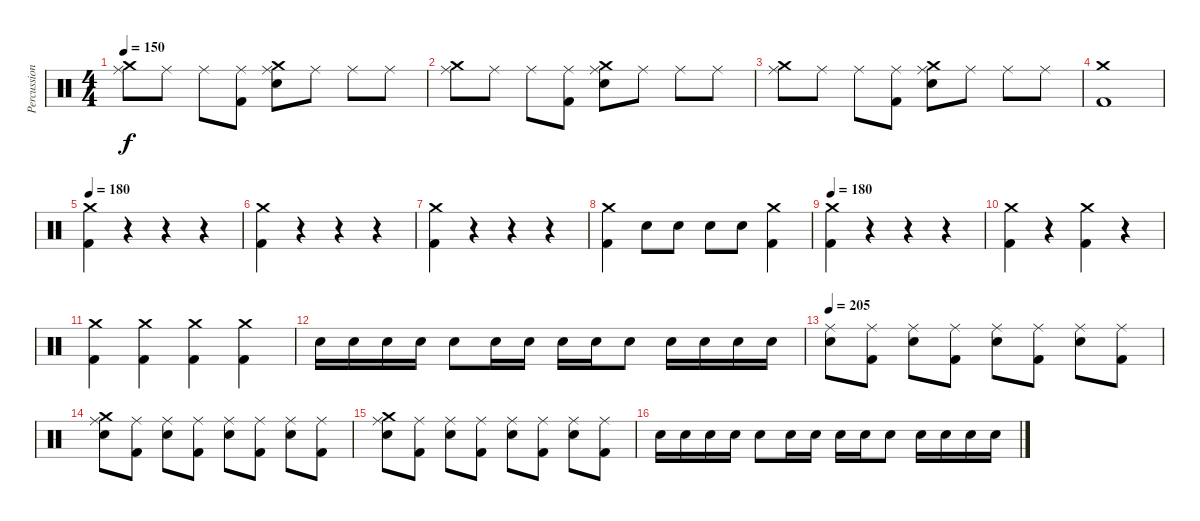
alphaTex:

\track ("Percussion" "Percussion") {instrument percussion}
\staff {score}
\articulation defaults
\ts (4 4)
\tempo 150
\clef neutral
\ks c
("Crash medium (hit)" "Ride (middle)").8{dy f} "Ride (middle)".8 "Ride (middle)".8 ("Kick (hit) 2" "Ride (middle)").8 ("Crash medium (hit)" "Snare (hit) 2" "Ride (middle)").8 "Ride (middle)".8 "Ride (middle)".8 "Ride (middle)".8 |
("Crash medium (hit)" "Ride (middle)").8 "Ride (middle)".8 "Ride (middle)".8 ("Kick (hit) 2" "Ride (middle)").8 ("Crash medium (hit)" "Snare (hit) 2" "Ride (middle)").8 "Ride (middle)".8 "Ride (middle)".8 "Ride (middle)".8 |
("Crash medium (hit)" "Ride (middle)").8 "Ride (middle)".8 "Ride (middle)".8 ("Kick (hit) 2" "Ride (middle)").8 ("Crash medium (hit)" "Snare (hit) 2" "Ride (middle)").8 "Ride (middle)".8 "Ride (middle)".8 "Ride (middle)".8 |
("Crash medium (hit)" "Kick (hit) 2").1 |
\tempo 180
("Crash medium (hit)" "Kick (hit) 2").4 r.4 r.4 r.4 |
("Crash medium (hit)" "Kick (hit) 2").4 r.4 r.4 r.4 |
("Crash medium (hit)" "Kick (hit) 2").4 r.4 r.4 r.4 |
("Crash medium (hit)" "Kick (hit) 2").4 "Snare (hit) 2".8 "Snare (hit) 2".8 "Snare (hit) 2".8 "Snare (hit) 2".8 ("Crash medium (hit)" "Kick (hit) 2").4 |
\tempo 180
("Crash medium (hit)" "Kick (hit) 2").4 r.4 r.4 r.4 |
("Crash medium (hit)" "Kick (hit) 2").4 r.4 ("Crash medium (hit)" "Kick (hit) 2").4 r.4 |
("Crash medium (hit)" "Kick (hit) 2").4 ("Crash medium (hit)" "Kick (hit) 2").4 ("Crash medium (hit)" "Kick (hit) 2").4 ("Crash medium (hit)" "Kick (hit) 2").4 |
"Snare (hit) 2".16 "Snare (hit) 2".16 "Snare (hit) 2".16 "Snare (hit) 2".16 "Snare (hit) 2".8 "Snare (hit) 2".16 "Snare (hit) 2".16 "Snare (hit) 2".16 "Snare (hit) 2".16 "Snare (hit) 2".8 "Snare (hit) 2".16 "Snare (hit) 2".16 "Snare (hit) 2".16 "Snare (hit) 2".16 |
\tempo 205
("Snare (hit) 2" "Ride (middle)").8 ("Kick (hit) 2" "Ride (middle)").8 ("Snare (hit) 2" "Ride (middle)").8 ("Kick (hit) 2" "Ride (middle)").8 ("Snare (hit) 2" "Ride (middle)").8 ("Kick (hit) 2" "Ride (middle)").8 ("Snare (hit) 2" "Ride (middle)").8 ("Kick (hit) 2" "Ride (middle)").8 |
("Crash medium (hit)" "Snare (hit) 2" "Ride (middle)").8 ("Kick (hit) 2" "Ride (middle)").8 ("Snare (hit) 2" "Ride (middle)").8 ("Kick (hit) 2" "Ride (middle)").8 ("Snare (hit) 2" "Ride (middle)").8 ("Kick (hit) 2" "Ride (middle)").8 ("Snare (hit) 2" "Ride (middle)").8 ("Kick (hit) 2" "Ride (middle)").8 |
("Crash medium (hit)" "Snare (hit) 2" "Ride (middle)").8 ("Kick (hit) 2" "Ride (middle)").8 ("Snare (hit) 2" "Ride (middle)").8 ("Kick (hit) 2" "Ride (middle)").8 ("Snare (hit) 2" "Ride (middle)").8 ("Kick (hit) 2" "Ride (middle)").8 ("Snare (hit) 2" "Ride (middle)").8 ("Kick (hit) 2" "Ride (middle)").8 |
"Snare (hit) 2".16 "Snare (hit) 2".16 "Snare (hit) 2".16 "Snare (hit) 2".16 "Snare (hit) 2".8 "Snare (hit) 2".16 "Snare (hit) 2".16 "Snare (hit) 2".16 "Snare (hit) 2".16 "Snare (hit) 2".8 "Snare (hit) 2".16 "Snare (hit) 2".16 "Snare (hit) 2".16 "Snare (hit) 2".16
